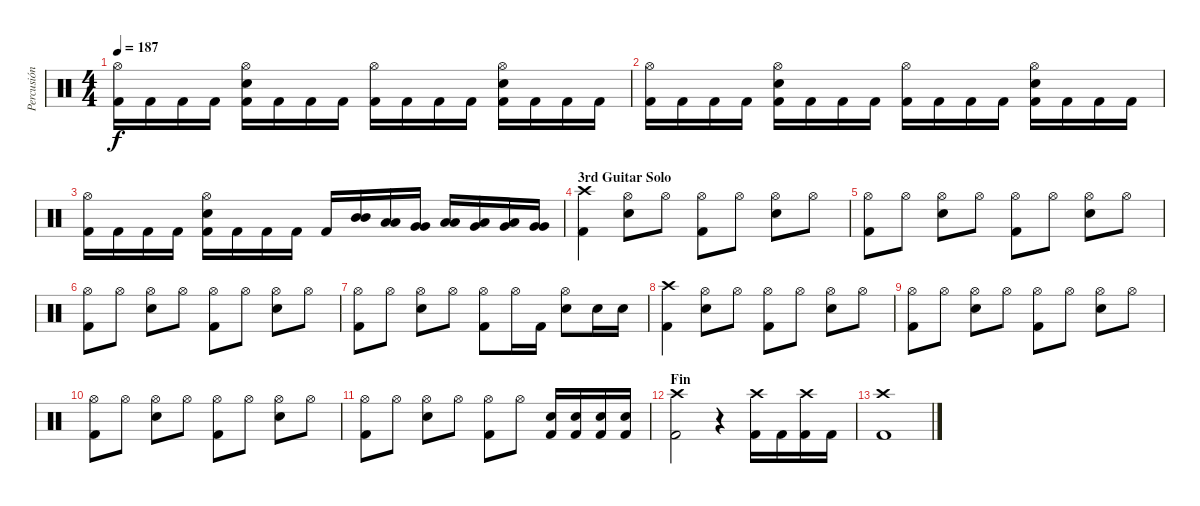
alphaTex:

\track ("Percusión" "Percusión") {instrument percussion}
\staff {score}
\articulation defaults
\ts (4 4)
\tempo 187
\clef neutral
\ks c
("Hi-Hat (open)" "Kick (hit) 2").16{dy f} "Kick (hit) 2".16 "Kick (hit) 2".16 "Kick (hit) 2".16 ("Hi-Hat (open)" "Electric Snare (hit)" "Kick (hit) 2").16 "Kick (hit) 2".16 "Kick (hit) 2".16 "Kick (hit) 2".16 ("Hi-Hat (open)" "Kick (hit) 2").16 "Kick (hit) 2".16 "Kick (hit) 2".16 "Kick (hit) 2".16 ("Hi-Hat (open)" "Electric Snare (hit)" "Kick (hit) 2").16 "Kick (hit) 2".16 "Kick (hit) 2".16 "Kick (hit) 2".16 |
("Hi-Hat (open)" "Kick (hit) 2").16 "Kick (hit) 2".16 "Kick (hit) 2".16 "Kick (hit) 2".16 ("Hi-Hat (open)" "Electric Snare (hit)" "Kick (hit) 2").16 "Kick (hit) 2".16 "Kick (hit) 2".16 "Kick (hit) 2".16 ("Hi-Hat (open)" "Kick (hit) 2").16 "Kick (hit) 2".16 "Kick (hit) 2".16 "Kick (hit) 2".16 ("Hi-Hat (open)" "Electric Snare (hit)" "Kick (hit) 2").16 "Kick (hit) 2".16 "Kick (hit) 2".16 "Kick (hit) 2".16 |
("Hi-Hat (open)" "Kick (hit) 2").16 "Kick (hit) 2".16 "Kick (hit) 2".16 "Kick (hit) 2".16 ("Hi-Hat (open)" "Electric Snare (hit)" "Kick (hit) 2").16 "Kick (hit) 2".16 "Kick (hit) 2".16 "Kick (hit) 2".16 "Kick (hit) 2".16 ("Mid Tom (hit)" "Mid Tom (hit)").16 ("Low Tom (hit)" "Low Tom (hit)").16 ("Very Low Tom (hit)" "Very Low Tom (hit)").16 ("Low Tom (hit)" "Low Tom (hit)").16 ("Very Low Tom (hit)" "Low Tom (hit)").16 ("Very Low Tom (hit)" "Low Tom (hit)").16 ("Very Low Tom (hit)" "Very Low Tom (hit)").16 |
\section ("" "3rd Guitar Solo")
("Crash high (hit)" "Kick (hit) 2").4 ("Hi-Hat (open)" "Electric Snare (hit)").8 "Hi-Hat (open)".8 ("Hi-Hat (open)" "Kick (hit) 2").8 "Hi-Hat (open)".8 ("Hi-Hat (open)" "Electric Snare (hit)").8 "Hi-Hat (open)".8 |
("Hi-Hat (open)" "Kick (hit) 2").8 "Hi-Hat (open)".8 ("Hi-Hat (open)" "Electric Snare (hit)").8 "Hi-Hat (open)".8 ("Hi-Hat (open)" "Kick (hit) 2").8 "Hi-Hat (open)".8 ("Hi-Hat (open)" "Electric Snare (hit)").8 "Hi-Hat (open)".8 |
("Hi-Hat (open)" "Kick (hit) 2").8 "Hi-Hat (open)".8 ("Hi-Hat (open)" "Electric Snare (hit)").8 "Hi-Hat (open)".8 ("Hi-Hat (open)" "Kick (hit) 2").8 "Hi-Hat (open)".8 ("Hi-Hat (open)" "Electric Snare (hit)").8 "Hi-Hat (open)".8 |
("Hi-Hat (open)" "Kick (hit) 2").8 "Hi-Hat (open)".8 ("Hi-Hat (open)" "Electric Snare (hit)").8 "Hi-Hat (open)".8 ("Hi-Hat (open)" "Kick (hit) 2").8 "Hi-Hat (open)".16 "Kick (hit) 2".16 ("Hi-Hat (open)" "Electric Snare (hit)").8 "Electric Snare (hit)".16 "Electric Snare (hit)".16 |
("Crash high (hit)" "Kick (hit) 2").4 ("Hi-Hat (open)" "Electric Snare (hit)").8 "Hi-Hat (open)".8 ("Hi-Hat (open)" "Kick (hit) 2").8 "Hi-Hat (open)".8 ("Hi-Hat (open)" "Electric Snare (hit)").8 "Hi-Hat (open)".8 |
("Hi-Hat (open)" "Kick (hit) 2").8 "Hi-Hat (open)".8 ("Hi-Hat (open)" "Electric Snare (hit)").8 "Hi-Hat (open)".8 ("Hi-Hat (open)" "Kick (hit) 2").8 "Hi-Hat (open)".8 ("Hi-Hat (open)" "Electric Snare (hit)").8 "Hi-Hat (open)".8 |
("Hi-Hat (open)" "Kick (hit) 2").8 "Hi-Hat (open)".8 ("Hi-Hat (open)" "Electric Snare (hit)").8 "Hi-Hat (open)".8 ("Hi-Hat (open)" "Kick (hit) 2").8 "Hi-Hat (open)".8 ("Hi-Hat (open)" "Electric Snare (hit)").8 "Hi-Hat (open)".8 |
("Hi-Hat (open)" "Kick (hit) 2").8 "Hi-Hat (open)".8 ("Hi-Hat (open)" "Electric Snare (hit)").8 "Hi-Hat (open)".8 ("Hi-Hat (open)" "Kick (hit) 2").8 "Hi-Hat (open)".8 ("Electric Snare (hit)" "Kick (hit) 2").16 ("Electric Snare (hit)" "Kick (hit) 2").16 ("Electric Snare (hit)" "Kick (hit) 2").16 ("Electric Snare (hit)" "Kick (hit) 2").16 |
\section ("" "Fin")
("Crash high (hit)" "Kick (hit) 2").2 r.4 ("Crash high (hit)" "Kick (hit) 2").16 "Kick (hit) 2".16 ("Crash high (hit)" "Kick (hit) 2").16 "Kick (hit) 2".16 |
("Crash high (hit)" "Kick (hit) 2").1
